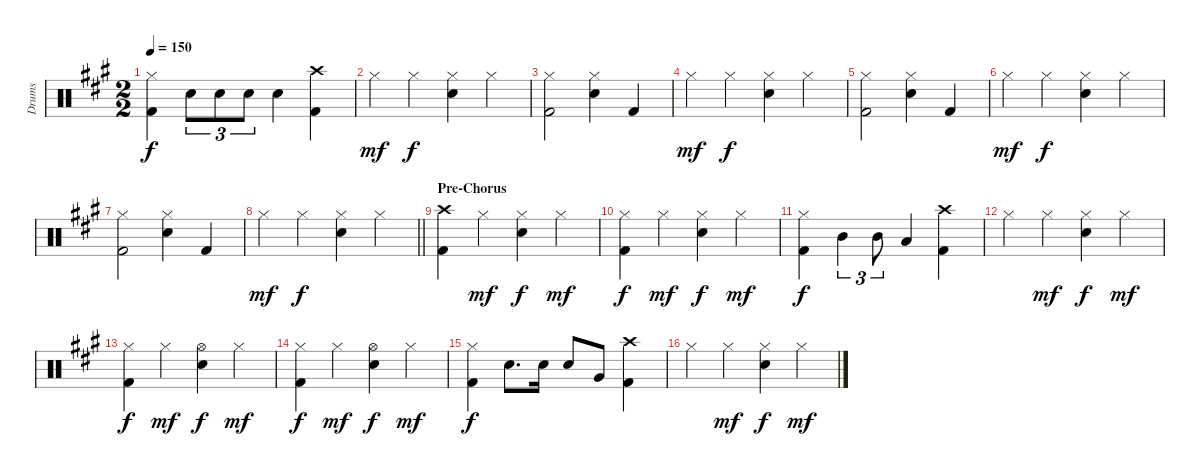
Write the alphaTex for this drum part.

\track ("Drums" "Drums") {instrument percussion}
\staff {score}
\articulation defaults
\ts (2 2)
\tempo 150
\clef neutral
\ks a
("Hi-Hat (closed)" "Kick (hit) 2").4{dy f} "Electric Snare (hit)".8{tu (3 2)} "Electric Snare (hit)".8{tu (3 2)} "Electric Snare (hit)".8{tu (3 2)} "Electric Snare (hit)".4 ("Crash high (hit)" "Kick (hit) 2").4 |
"Hi-Hat (closed)".4{dy mf} "Hi-Hat (closed)".4{dy f} ("Hi-Hat (closed)" "Electric Snare (hit)").4 "Hi-Hat (closed)".4 |
("Hi-Hat (closed)" "Kick (hit) 2").2 ("Hi-Hat (closed)" "Electric Snare (hit)").4 "Kick (hit) 2".4 |
"Hi-Hat (closed)".4{dy mf} "Hi-Hat (closed)".4{dy f} ("Hi-Hat (closed)" "Electric Snare (hit)").4 "Hi-Hat (closed)".4 |
("Hi-Hat (closed)" "Kick (hit) 2").2 ("Hi-Hat (closed)" "Electric Snare (hit)").4 "Kick (hit) 2".4 |
"Hi-Hat (closed)".4{dy mf} "Hi-Hat (closed)".4{dy f} ("Hi-Hat (closed)" "Electric Snare (hit)").4 "Hi-Hat (closed)".4 |
("Hi-Hat (closed)" "Kick (hit) 2").2 ("Hi-Hat (closed)" "Electric Snare (hit)").4 "Kick (hit) 2".4 |
\barLineRight lightlight "Hi-Hat (closed)".4{dy mf} "Hi-Hat (closed)".4{dy f}
("Hi-Hat (closed)" "Electric Snare (hit)").4 "Hi-Hat (closed)".4 |
\section ("" "Pre-Chorus")
("Crash high (hit)" "Kick (hit) 2").4 "Hi-Hat (closed)".4{dy mf} ("Hi-Hat (closed)" "Electric Snare (hit)").4{dy f} "Hi-Hat (closed)".4{dy mf} |
("Hi-Hat (closed)" "Kick (hit) 2").4{dy f} "Hi-Hat (closed)".4{dy mf} ("Hi-Hat (closed)" "Electric Snare (hit)").4{dy f} "Hi-Hat (closed)".4{dy mf} |
("Hi-Hat (closed)" "Kick (hit) 2").4{dy f} "Mid Tom (hit)".4{tu (3 2)} "Mid Tom (hit)".8{tu (3 2)} "Low Tom (hit)".4 ("Crash high (hit)" "Kick (hit) 2").4 |
"Hi-Hat (closed)".4 "Hi-Hat (closed)".4{dy mf} ("Hi-Hat (closed)" "Electric Snare (hit)").4{dy f} "Hi-Hat (closed)".4{dy mf} |
("Hi-Hat (closed)" "Kick (hit) 2").4{dy f} "Hi-Hat (closed)".4{dy mf} ("Hi-Hat (open)" "Electric Snare (hit)").4{dy f} "Hi-Hat (closed)".4{dy mf} |
("Hi-Hat (closed)" "Kick (hit) 2").4{dy f} "Hi-Hat (closed)".4{dy mf} ("Hi-Hat (open)" "Electric Snare (hit)").4{dy f} "Hi-Hat (closed)".4{dy mf} |
("Hi-Hat (closed)" "Kick (hit) 2").4{dy f} "Electric Snare (hit)".8{d} "Electric Snare (hit)".16 "Electric Snare (hit)".8 "Very Low Tom (hit)".8 ("Crash high (hit)" "Kick (hit) 2").4 |
"Hi-Hat (closed)".4 "Hi-Hat (closed)".4{dy mf} ("Hi-Hat (closed)" "Electric Snare (hit)").4{dy f} "Hi-Hat (closed)".4{dy mf}
